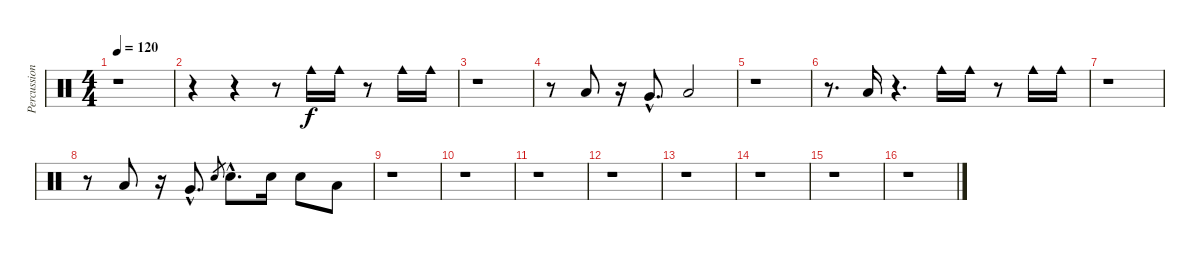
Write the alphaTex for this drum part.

\track ("Percussions" "Percussion") {instrument percussion}
\staff {score}
\articulation defaults
\ts (4 4)
\tempo 120
\clef neutral
\ks c
r.1{dy f} |
r.4 r.4 r.8 "Cowbell medium (hit)".16 "Cowbell medium (hit)".16 r.8 "Cowbell medium (hit)".16 "Cowbell medium (hit)".16 |
r.1 |
r.8 "Low Tom (hit)".8 r.16 "Very Low Tom (hit)"{hac}.8{d} "Low Floor Tom (hit)".2 |
r.1 |
r.8{d} "Low Tom (hit)".16 r.4{d} "Cowbell medium (hit)".16 "Cowbell medium (hit)".16 r.8 "Cowbell medium (hit)".16 "Cowbell medium (hit)".16 |
r.1 |
r.8 "Low Tom (hit)".8 r.16 "Very Low Tom (hit)"{hac}.8{d} "Snare (hit) 2".8{gr} "Snare (hit) 2"{hac}.8{d} "Snare (hit) 2".16 "Snare (hit) 2".8 "Low Tom (hit)".8 |
r.1 |
r.1 |
r.1 |
r.1 |
r.1 |
r.1 |
r.1 |
r.1
